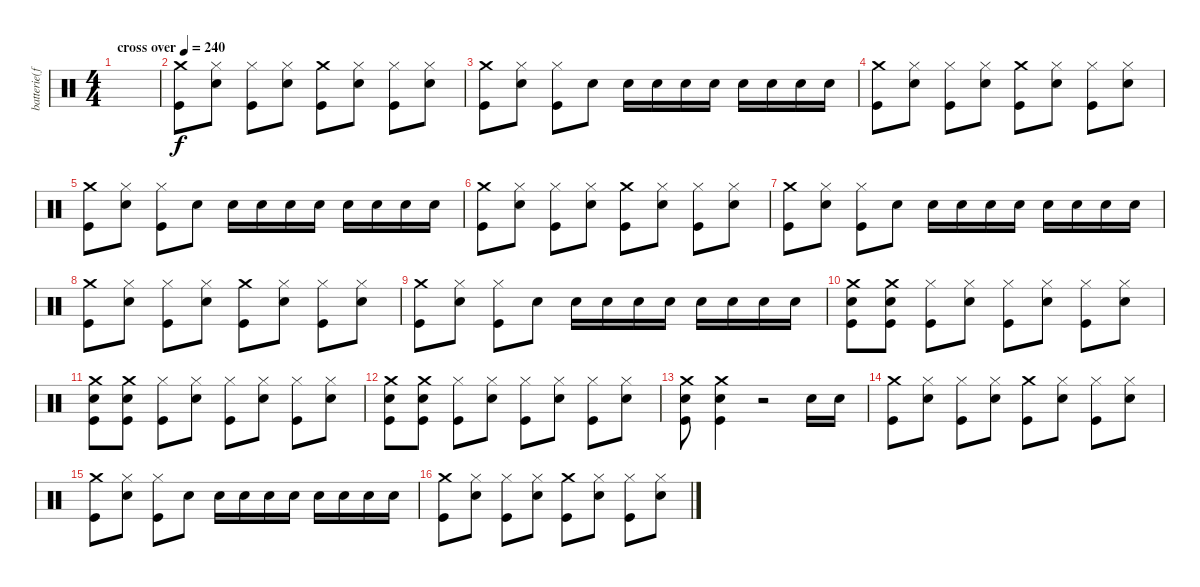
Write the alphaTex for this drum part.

\track ("batterie(felix)" "batterie(f") {instrument percussion}
\staff {score}
\articulation defaults
\ts (4 4)
\tempo (240 "cross over")
\clef neutral
\ks c
|
("Crash medium (hit)" "Kick (hit)").8 ("Hi-Hat (closed)" "Snare (hit) 2").8 ("Hi-Hat (closed)" "Kick (hit)").8 ("Hi-Hat (closed)" "Snare (hit) 2").8 ("Crash medium (hit)" "Kick (hit)").8 ("Hi-Hat (closed)" "Snare (hit) 2").8 ("Hi-Hat (closed)" "Kick (hit)").8 ("Hi-Hat (closed)" "Snare (hit) 2").8 |
("Crash medium (hit)" "Kick (hit)").8 ("Hi-Hat (closed)" "Snare (hit) 2").8 ("Hi-Hat (closed)" "Kick (hit)").8 "Snare (hit) 2".8 "Snare (hit) 2".16 "Snare (hit) 2".16 "Snare (hit) 2".16 "Snare (hit) 2".16 "Snare (hit) 2".16 "Snare (hit) 2".16 "Snare (hit) 2".16 "Snare (hit) 2".16 |
("Crash medium (hit)" "Kick (hit)").8 ("Hi-Hat (closed)" "Snare (hit) 2").8 ("Hi-Hat (closed)" "Kick (hit)").8 ("Hi-Hat (closed)" "Snare (hit) 2").8 ("Crash medium (hit)" "Kick (hit)").8 ("Hi-Hat (closed)" "Snare (hit) 2").8 ("Hi-Hat (closed)" "Kick (hit)").8 ("Hi-Hat (closed)" "Snare (hit) 2").8 |
("Crash medium (hit)" "Kick (hit)").8 ("Hi-Hat (closed)" "Snare (hit) 2").8 ("Hi-Hat (closed)" "Kick (hit)").8 "Snare (hit) 2".8 "Snare (hit) 2".16 "Snare (hit) 2".16 "Snare (hit) 2".16 "Snare (hit) 2".16 "Snare (hit) 2".16 "Snare (hit) 2".16 "Snare (hit) 2".16 "Snare (hit) 2".16 |
("Crash medium (hit)" "Kick (hit)").8 ("Hi-Hat (closed)" "Snare (hit) 2").8 ("Hi-Hat (closed)" "Kick (hit)").8 ("Hi-Hat (closed)" "Snare (hit) 2").8 ("Crash medium (hit)" "Kick (hit)").8 ("Hi-Hat (closed)" "Snare (hit) 2").8 ("Hi-Hat (closed)" "Kick (hit)").8 ("Hi-Hat (closed)" "Snare (hit) 2").8 |
("Crash medium (hit)" "Kick (hit)").8 ("Hi-Hat (closed)" "Snare (hit) 2").8 ("Hi-Hat (closed)" "Kick (hit)").8 "Snare (hit) 2".8 "Snare (hit) 2".16 "Snare (hit) 2".16 "Snare (hit) 2".16 "Snare (hit) 2".16 "Snare (hit) 2".16 "Snare (hit) 2".16 "Snare (hit) 2".16 "Snare (hit) 2".16 |
("Crash medium (hit)" "Kick (hit)").8 ("Hi-Hat (closed)" "Snare (hit) 2").8 ("Hi-Hat (closed)" "Kick (hit)").8 ("Hi-Hat (closed)" "Snare (hit) 2").8 ("Crash medium (hit)" "Kick (hit)").8 ("Hi-Hat (closed)" "Snare (hit) 2").8 ("Hi-Hat (closed)" "Kick (hit)").8 ("Hi-Hat (closed)" "Snare (hit) 2").8 |
("Crash medium (hit)" "Kick (hit)").8 ("Hi-Hat (closed)" "Snare (hit) 2").8 ("Hi-Hat (closed)" "Kick (hit)").8 "Snare (hit) 2".8 "Snare (hit) 2".16 "Snare (hit) 2".16 "Snare (hit) 2".16 "Snare (hit) 2".16 "Snare (hit) 2".16 "Snare (hit) 2".16 "Snare (hit) 2".16 "Snare (hit) 2".16 |
("Crash medium (hit)" "Snare (hit) 2" "Kick (hit)").8 ("Crash medium (hit)" "Snare (hit) 2" "Kick (hit)").8 ("Hi-Hat (closed)" "Kick (hit)").8 ("Hi-Hat (closed)" "Snare (hit) 2").8 ("Hi-Hat (closed)" "Kick (hit)").8 ("Hi-Hat (closed)" "Snare (hit) 2").8 ("Hi-Hat (closed)" "Kick (hit)").8 ("Hi-Hat (closed)" "Snare (hit) 2").8 |
("Crash medium (hit)" "Snare (hit) 2" "Kick (hit)").8 ("Crash medium (hit)" "Snare (hit) 2" "Kick (hit)").8 ("Hi-Hat (closed)" "Kick (hit)").8 ("Hi-Hat (closed)" "Snare (hit) 2").8 ("Hi-Hat (closed)" "Kick (hit)").8 ("Hi-Hat (closed)" "Snare (hit) 2").8 ("Hi-Hat (closed)" "Kick (hit)").8 ("Hi-Hat (closed)" "Snare (hit) 2").8 |
("Crash medium (hit)" "Snare (hit) 2" "Kick (hit)").8 ("Crash medium (hit)" "Snare (hit) 2" "Kick (hit)").8 ("Hi-Hat (closed)" "Kick (hit)").8 ("Hi-Hat (closed)" "Snare (hit) 2").8 ("Hi-Hat (closed)" "Kick (hit)").8 ("Hi-Hat (closed)" "Snare (hit) 2").8 ("Hi-Hat (closed)" "Kick (hit)").8 ("Hi-Hat (closed)" "Snare (hit) 2").8 |
("Crash medium (hit)" "Snare (hit) 2" "Kick (hit)").8 ("Crash medium (hit)" "Snare (hit) 2" "Kick (hit)").4 r.2 "Snare (hit) 2".16 "Snare (hit) 2".16 |
("Crash medium (hit)" "Kick (hit)").8 ("Hi-Hat (closed)" "Snare (hit) 2").8 ("Hi-Hat (closed)" "Kick (hit)").8 ("Hi-Hat (closed)" "Snare (hit) 2").8 ("Crash medium (hit)" "Kick (hit)").8 ("Hi-Hat (closed)" "Snare (hit) 2").8 ("Hi-Hat (closed)" "Kick (hit)").8 ("Hi-Hat (closed)" "Snare (hit) 2").8 |
("Crash medium (hit)" "Kick (hit)").8 ("Hi-Hat (closed)" "Snare (hit) 2").8 ("Hi-Hat (closed)" "Kick (hit)").8 "Snare (hit) 2".8 "Snare (hit) 2".16 "Snare (hit) 2".16 "Snare (hit) 2".16 "Snare (hit) 2".16 "Snare (hit) 2".16 "Snare (hit) 2".16 "Snare (hit) 2".16 "Snare (hit) 2".16 |
("Crash medium (hit)" "Kick (hit)").8 ("Hi-Hat (closed)" "Snare (hit) 2").8 ("Hi-Hat (closed)" "Kick (hit)").8 ("Hi-Hat (closed)" "Snare (hit) 2").8 ("Crash medium (hit)" "Kick (hit)").8 ("Hi-Hat (closed)" "Snare (hit) 2").8 ("Hi-Hat (closed)" "Kick (hit)").8 ("Hi-Hat (closed)" "Snare (hit) 2").8
